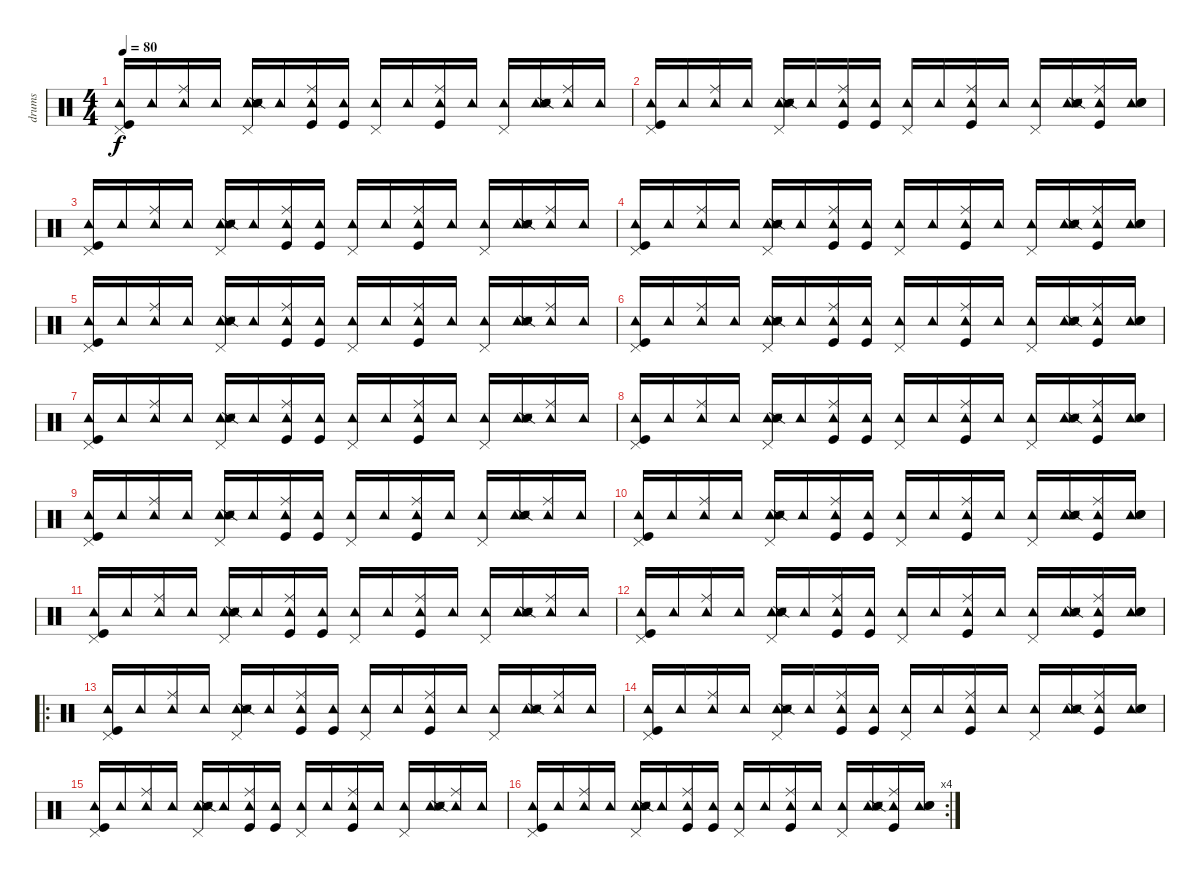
\track ("drums" "drums") {instrument percussion}
\staff {score}
\articulation defaults
\ts (4 4)
\tempo 80
\clef neutral
\ks c
("Pedal Hi-Hat (hit)" "Tambourine (hit)" "Kick (hit)").16{dy f} "Tambourine (hit)".16 ("Ride (middle)" "Tambourine (hit)").16 "Tambourine (hit)".16 ("Pedal Hi-Hat (hit)" "Tambourine (hit)" "Snare (side stick) 2" "Metronome (hit)" "Metronome (hit)").16 "Tambourine (hit)".16 ("Ride (middle)" "Tambourine (hit)" "Kick (hit)").16 ("Tambourine (hit)" "Kick (hit)").16 ("Pedal Hi-Hat (hit)" "Tambourine (hit)").16 "Tambourine (hit)".16 ("Ride (middle)" "Tambourine (hit)" "Kick (hit)").16 "Tambourine (hit)".16 ("Pedal Hi-Hat (hit)" "Tambourine (hit)").16 ("Tambourine (hit)" "Snare (side stick) 2" "Metronome (hit)" "Metronome (hit)").16 ("Ride (middle)" "Tambourine (hit)").16 "Tambourine (hit)".16 |
("Pedal Hi-Hat (hit)" "Tambourine (hit)" "Kick (hit)").16 "Tambourine (hit)".16 ("Ride (middle)" "Tambourine (hit)").16 "Tambourine (hit)".16 ("Pedal Hi-Hat (hit)" "Tambourine (hit)" "Snare (side stick) 2" "Metronome (hit)" "Metronome (hit)").16 "Tambourine (hit)".16 ("Ride (middle)" "Tambourine (hit)" "Kick (hit)").16 ("Tambourine (hit)" "Kick (hit)").16 ("Pedal Hi-Hat (hit)" "Tambourine (hit)").16 "Tambourine (hit)".16 ("Ride (middle)" "Tambourine (hit)" "Kick (hit)").16 "Tambourine (hit)".16 ("Pedal Hi-Hat (hit)" "Tambourine (hit)").16 ("Tambourine (hit)" "Snare (side stick) 2" "Metronome (hit)" "Metronome (hit)").16 ("Ride (middle)" "Tambourine (hit)" "Kick (hit)").16 ("Tambourine (hit)" "Snare (hit) 2" "Snare (hit) 2").16 |
("Pedal Hi-Hat (hit)" "Tambourine (hit)" "Kick (hit)").16 "Tambourine (hit)".16 ("Ride (middle)" "Tambourine (hit)").16 "Tambourine (hit)".16 ("Pedal Hi-Hat (hit)" "Tambourine (hit)" "Snare (side stick) 2" "Metronome (hit)" "Metronome (hit)").16 "Tambourine (hit)".16 ("Ride (middle)" "Tambourine (hit)" "Kick (hit)").16 ("Tambourine (hit)" "Kick (hit)").16 ("Pedal Hi-Hat (hit)" "Tambourine (hit)").16 "Tambourine (hit)".16 ("Ride (middle)" "Tambourine (hit)" "Kick (hit)").16 "Tambourine (hit)".16 ("Pedal Hi-Hat (hit)" "Tambourine (hit)").16 ("Tambourine (hit)" "Snare (side stick) 2" "Metronome (hit)" "Metronome (hit)").16 ("Ride (middle)" "Tambourine (hit)").16 "Tambourine (hit)".16 |
("Pedal Hi-Hat (hit)" "Tambourine (hit)" "Kick (hit)").16 "Tambourine (hit)".16 ("Ride (middle)" "Tambourine (hit)").16 "Tambourine (hit)".16 ("Pedal Hi-Hat (hit)" "Tambourine (hit)" "Snare (side stick) 2" "Metronome (hit)" "Metronome (hit)").16 "Tambourine (hit)".16 ("Ride (middle)" "Tambourine (hit)" "Kick (hit)").16 ("Tambourine (hit)" "Kick (hit)").16 ("Pedal Hi-Hat (hit)" "Tambourine (hit)").16 "Tambourine (hit)".16 ("Ride (middle)" "Tambourine (hit)" "Kick (hit)").16 "Tambourine (hit)".16 ("Pedal Hi-Hat (hit)" "Tambourine (hit)").16 ("Tambourine (hit)" "Snare (side stick) 2" "Metronome (hit)" "Metronome (hit)").16 ("Ride (middle)" "Tambourine (hit)" "Kick (hit)").16 ("Tambourine (hit)" "Snare (hit) 2" "Snare (hit) 2").16 |
("Pedal Hi-Hat (hit)" "Tambourine (hit)" "Kick (hit)").16 "Tambourine (hit)".16 ("Ride (middle)" "Tambourine (hit)").16 "Tambourine (hit)".16 ("Pedal Hi-Hat (hit)" "Tambourine (hit)" "Snare (side stick) 2" "Metronome (hit)" "Metronome (hit)").16 "Tambourine (hit)".16 ("Ride (middle)" "Tambourine (hit)" "Kick (hit)").16 ("Tambourine (hit)" "Kick (hit)").16 ("Pedal Hi-Hat (hit)" "Tambourine (hit)").16 "Tambourine (hit)".16 ("Ride (middle)" "Tambourine (hit)" "Kick (hit)").16 "Tambourine (hit)".16 ("Pedal Hi-Hat (hit)" "Tambourine (hit)").16 ("Tambourine (hit)" "Snare (side stick) 2" "Metronome (hit)" "Metronome (hit)").16 ("Ride (middle)" "Tambourine (hit)").16 "Tambourine (hit)".16 |
("Pedal Hi-Hat (hit)" "Tambourine (hit)" "Kick (hit)").16 "Tambourine (hit)".16 ("Ride (middle)" "Tambourine (hit)").16 "Tambourine (hit)".16 ("Pedal Hi-Hat (hit)" "Tambourine (hit)" "Snare (side stick) 2" "Metronome (hit)" "Metronome (hit)").16 "Tambourine (hit)".16 ("Ride (middle)" "Tambourine (hit)" "Kick (hit)").16 ("Tambourine (hit)" "Kick (hit)").16 ("Pedal Hi-Hat (hit)" "Tambourine (hit)").16 "Tambourine (hit)".16 ("Ride (middle)" "Tambourine (hit)" "Kick (hit)").16 "Tambourine (hit)".16 ("Pedal Hi-Hat (hit)" "Tambourine (hit)").16 ("Tambourine (hit)" "Snare (side stick) 2" "Metronome (hit)" "Metronome (hit)").16 ("Ride (middle)" "Tambourine (hit)" "Kick (hit)").16 ("Tambourine (hit)" "Snare (hit) 2" "Snare (hit) 2").16 |
("Pedal Hi-Hat (hit)" "Tambourine (hit)" "Kick (hit)").16 "Tambourine (hit)".16 ("Ride (middle)" "Tambourine (hit)").16 "Tambourine (hit)".16 ("Pedal Hi-Hat (hit)" "Tambourine (hit)" "Snare (side stick) 2" "Metronome (hit)" "Metronome (hit)").16 "Tambourine (hit)".16 ("Ride (middle)" "Tambourine (hit)" "Kick (hit)").16 ("Tambourine (hit)" "Kick (hit)").16 ("Pedal Hi-Hat (hit)" "Tambourine (hit)").16 "Tambourine (hit)".16 ("Ride (middle)" "Tambourine (hit)" "Kick (hit)").16 "Tambourine (hit)".16 ("Pedal Hi-Hat (hit)" "Tambourine (hit)").16 ("Tambourine (hit)" "Snare (side stick) 2" "Metronome (hit)" "Metronome (hit)").16 ("Ride (middle)" "Tambourine (hit)").16 "Tambourine (hit)".16 |
("Pedal Hi-Hat (hit)" "Tambourine (hit)" "Kick (hit)").16 "Tambourine (hit)".16 ("Ride (middle)" "Tambourine (hit)").16 "Tambourine (hit)".16 ("Pedal Hi-Hat (hit)" "Tambourine (hit)" "Snare (side stick) 2" "Metronome (hit)" "Metronome (hit)").16 "Tambourine (hit)".16 ("Ride (middle)" "Tambourine (hit)" "Kick (hit)").16 ("Tambourine (hit)" "Kick (hit)").16 ("Pedal Hi-Hat (hit)" "Tambourine (hit)").16 "Tambourine (hit)".16 ("Ride (middle)" "Tambourine (hit)" "Kick (hit)").16 "Tambourine (hit)".16 ("Pedal Hi-Hat (hit)" "Tambourine (hit)").16 ("Tambourine (hit)" "Snare (side stick) 2" "Metronome (hit)" "Metronome (hit)").16 ("Ride (middle)" "Tambourine (hit)" "Kick (hit)").16 ("Tambourine (hit)" "Snare (hit) 2" "Snare (hit) 2").16 |
("Pedal Hi-Hat (hit)" "Tambourine (hit)" "Kick (hit)").16 "Tambourine (hit)".16 ("Ride (middle)" "Tambourine (hit)").16 "Tambourine (hit)".16 ("Pedal Hi-Hat (hit)" "Tambourine (hit)" "Snare (side stick) 2" "Metronome (hit)" "Metronome (hit)").16 "Tambourine (hit)".16 ("Ride (middle)" "Tambourine (hit)" "Kick (hit)").16 ("Tambourine (hit)" "Kick (hit)").16 ("Pedal Hi-Hat (hit)" "Tambourine (hit)").16 "Tambourine (hit)".16 ("Ride (middle)" "Tambourine (hit)" "Kick (hit)").16 "Tambourine (hit)".16 ("Pedal Hi-Hat (hit)" "Tambourine (hit)").16 ("Tambourine (hit)" "Snare (side stick) 2" "Metronome (hit)" "Metronome (hit)").16 ("Ride (middle)" "Tambourine (hit)").16 "Tambourine (hit)".16 |
("Pedal Hi-Hat (hit)" "Tambourine (hit)" "Kick (hit)").16 "Tambourine (hit)".16 ("Ride (middle)" "Tambourine (hit)").16 "Tambourine (hit)".16 ("Pedal Hi-Hat (hit)" "Tambourine (hit)" "Snare (side stick) 2" "Metronome (hit)" "Metronome (hit)").16 "Tambourine (hit)".16 ("Ride (middle)" "Tambourine (hit)" "Kick (hit)").16 ("Tambourine (hit)" "Kick (hit)").16 ("Pedal Hi-Hat (hit)" "Tambourine (hit)").16 "Tambourine (hit)".16 ("Ride (middle)" "Tambourine (hit)" "Kick (hit)").16 "Tambourine (hit)".16 ("Pedal Hi-Hat (hit)" "Tambourine (hit)").16 ("Tambourine (hit)" "Snare (side stick) 2" "Metronome (hit)" "Metronome (hit)").16 ("Ride (middle)" "Tambourine (hit)" "Kick (hit)").16 ("Tambourine (hit)" "Snare (hit) 2" "Snare (hit) 2").16 |
("Pedal Hi-Hat (hit)" "Tambourine (hit)" "Kick (hit)").16 "Tambourine (hit)".16 ("Ride (middle)" "Tambourine (hit)").16 "Tambourine (hit)".16 ("Pedal Hi-Hat (hit)" "Tambourine (hit)" "Snare (side stick) 2" "Metronome (hit)" "Metronome (hit)").16 "Tambourine (hit)".16 ("Ride (middle)" "Tambourine (hit)" "Kick (hit)").16 ("Tambourine (hit)" "Kick (hit)").16 ("Pedal Hi-Hat (hit)" "Tambourine (hit)").16 "Tambourine (hit)".16 ("Ride (middle)" "Tambourine (hit)" "Kick (hit)").16 "Tambourine (hit)".16 ("Pedal Hi-Hat (hit)" "Tambourine (hit)").16 ("Tambourine (hit)" "Snare (side stick) 2" "Metronome (hit)" "Metronome (hit)").16 ("Ride (middle)" "Tambourine (hit)").16 "Tambourine (hit)".16 |
("Pedal Hi-Hat (hit)" "Tambourine (hit)" "Kick (hit)").16 "Tambourine (hit)".16 ("Ride (middle)" "Tambourine (hit)").16 "Tambourine (hit)".16 ("Pedal Hi-Hat (hit)" "Tambourine (hit)" "Snare (side stick) 2" "Metronome (hit)" "Metronome (hit)").16 "Tambourine (hit)".16 ("Ride (middle)" "Tambourine (hit)" "Kick (hit)").16 ("Tambourine (hit)" "Kick (hit)").16 ("Pedal Hi-Hat (hit)" "Tambourine (hit)").16 "Tambourine (hit)".16 ("Ride (middle)" "Tambourine (hit)" "Kick (hit)").16 "Tambourine (hit)".16 ("Pedal Hi-Hat (hit)" "Tambourine (hit)").16 ("Tambourine (hit)" "Snare (side stick) 2" "Metronome (hit)" "Metronome (hit)").16 ("Ride (middle)" "Tambourine (hit)" "Kick (hit)").16 ("Tambourine (hit)" "Snare (hit) 2" "Snare (hit) 2").16 |
\ro
("Pedal Hi-Hat (hit)" "Tambourine (hit)" "Kick (hit)").16 "Tambourine (hit)".16 ("Ride (middle)" "Tambourine (hit)").16 "Tambourine (hit)".16 ("Pedal Hi-Hat (hit)" "Tambourine (hit)" "Snare (side stick) 2" "Metronome (hit)" "Metronome (hit)").16 "Tambourine (hit)".16 ("Ride (middle)" "Tambourine (hit)" "Kick (hit)").16 ("Tambourine (hit)" "Kick (hit)").16 ("Pedal Hi-Hat (hit)" "Tambourine (hit)").16 "Tambourine (hit)".16 ("Ride (middle)" "Tambourine (hit)" "Kick (hit)").16 "Tambourine (hit)".16 ("Pedal Hi-Hat (hit)" "Tambourine (hit)").16 ("Tambourine (hit)" "Snare (side stick) 2" "Metronome (hit)" "Metronome (hit)").16 ("Ride (middle)" "Tambourine (hit)").16 "Tambourine (hit)".16 |
("Pedal Hi-Hat (hit)" "Tambourine (hit)" "Kick (hit)").16 "Tambourine (hit)".16 ("Ride (middle)" "Tambourine (hit)").16 "Tambourine (hit)".16 ("Pedal Hi-Hat (hit)" "Tambourine (hit)" "Snare (side stick) 2" "Metronome (hit)" "Metronome (hit)").16 "Tambourine (hit)".16 ("Ride (middle)" "Tambourine (hit)" "Kick (hit)").16 ("Tambourine (hit)" "Kick (hit)").16 ("Pedal Hi-Hat (hit)" "Tambourine (hit)").16 "Tambourine (hit)".16 ("Ride (middle)" "Tambourine (hit)" "Kick (hit)").16 "Tambourine (hit)".16 ("Pedal Hi-Hat (hit)" "Tambourine (hit)").16 ("Tambourine (hit)" "Snare (side stick) 2" "Metronome (hit)" "Metronome (hit)").16 ("Ride (middle)" "Tambourine (hit)" "Kick (hit)").16 ("Tambourine (hit)" "Snare (hit) 2" "Snare (hit) 2").16 |
("Pedal Hi-Hat (hit)" "Tambourine (hit)" "Kick (hit)").16 "Tambourine (hit)".16 ("Ride (middle)" "Tambourine (hit)").16 "Tambourine (hit)".16 ("Pedal Hi-Hat (hit)" "Tambourine (hit)" "Snare (side stick) 2" "Metronome (hit)" "Metronome (hit)").16 "Tambourine (hit)".16 ("Ride (middle)" "Tambourine (hit)" "Kick (hit)").16 ("Tambourine (hit)" "Kick (hit)").16 ("Pedal Hi-Hat (hit)" "Tambourine (hit)").16 "Tambourine (hit)".16 ("Ride (middle)" "Tambourine (hit)" "Kick (hit)").16 "Tambourine (hit)".16 ("Pedal Hi-Hat (hit)" "Tambourine (hit)").16 ("Tambourine (hit)" "Snare (side stick) 2" "Metronome (hit)" "Metronome (hit)").16 ("Ride (middle)" "Tambourine (hit)").16 "Tambourine (hit)".16 |
\rc 4
("Pedal Hi-Hat (hit)" "Tambourine (hit)" "Kick (hit)").16 "Tambourine (hit)".16 ("Ride (middle)" "Tambourine (hit)").16 "Tambourine (hit)".16 ("Pedal Hi-Hat (hit)" "Tambourine (hit)" "Snare (side stick) 2" "Metronome (hit)" "Metronome (hit)").16 "Tambourine (hit)".16 ("Ride (middle)" "Tambourine (hit)" "Kick (hit)").16 ("Tambourine (hit)" "Kick (hit)").16 ("Pedal Hi-Hat (hit)" "Tambourine (hit)").16 "Tambourine (hit)".16 ("Ride (middle)" "Tambourine (hit)" "Kick (hit)").16 "Tambourine (hit)".16 ("Pedal Hi-Hat (hit)" "Tambourine (hit)").16 ("Tambourine (hit)" "Snare (side stick) 2" "Metronome (hit)" "Metronome (hit)").16 ("Ride (middle)" "Tambourine (hit)" "Kick (hit)").16 ("Tambourine (hit)" "Snare (hit) 2" "Snare (hit) 2").16
